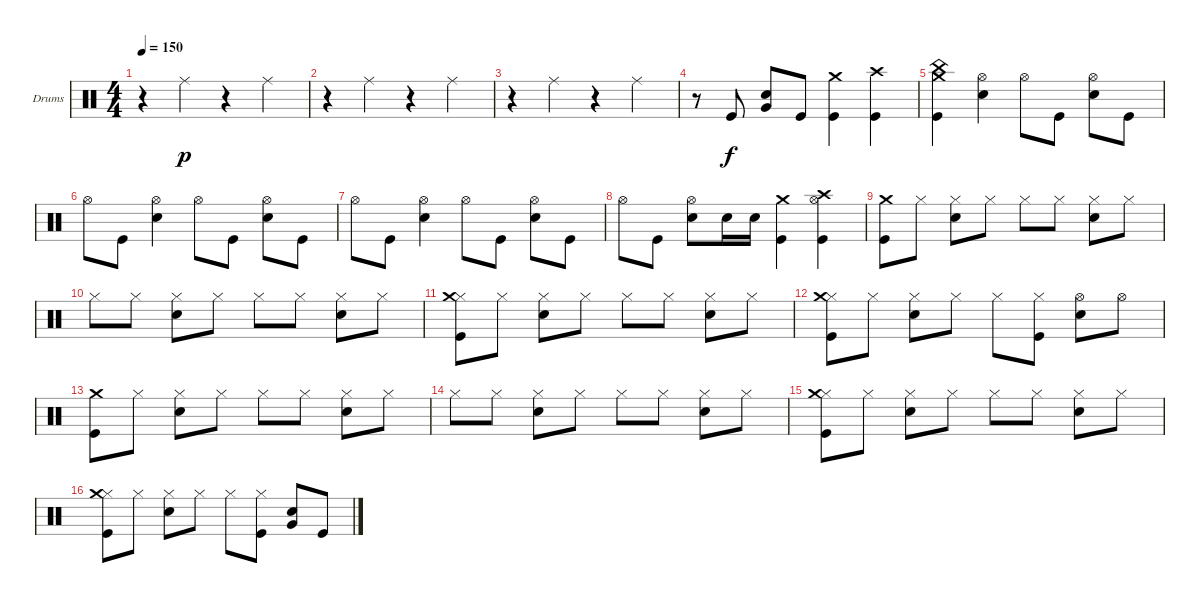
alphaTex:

\defaultSystemsLayout 4
\bracketExtendMode groupsimilarinstruments
\firstSystemTrackNameOrientation horizontal
\otherSystemsTrackNameOrientation horizontal
\track ("Drumkit" "Drums") {instrument percussion}
\staff {score}
\articulation defaults
\ts (4 4)
\tempo 150
\clef neutral
\ks c
r.4{dy p} "Ride (middle)".4 r.4 "Ride (middle)".4 |
r.4 "Ride (middle)".4 r.4 "Ride (middle)".4 |
r.4 "Ride (middle)".4 r.4 "Ride (middle)".4 |
r.8 "Kick (hit)".8{dy f} ("Snare (hit) 2" "Very Low Tom (hit)").8 "Kick (hit)".8 ("Kick (hit)" "Crash medium (hit)").4 ("Kick (hit)" "Crash high (hit)").4 |
("Crash medium (hit)" "Kick (hit)" "China (hit)").4 ("Snare (hit) 2" "Hi-Hat (open)").4 "Hi-Hat (open)".8 "Kick (hit)".8 ("Hi-Hat (open)" "Snare (hit) 2").8 "Kick (hit)".8 |
"Hi-Hat (open)".8 "Kick (hit)".8 ("Hi-Hat (open)" "Snare (hit) 2").4 "Hi-Hat (open)".8 "Kick (hit)".8 ("Hi-Hat (open)" "Snare (hit) 2").8 "Kick (hit)".8 |
"Hi-Hat (open)".8 "Kick (hit)".8 ("Hi-Hat (open)" "Snare (hit) 2").4 "Hi-Hat (open)".8 "Kick (hit)".8 ("Hi-Hat (open)" "Snare (hit) 2").8 "Kick (hit)".8 |
"Hi-Hat (open)".8 "Kick (hit)".8 ("Snare (hit) 2" "Hi-Hat (open)").8 "Snare (hit) 2".16 "Snare (hit) 2".16 ("Kick (hit)" "Crash medium (hit)").4 ("Kick (hit)" "Crash high (hit)" "Hi-Hat (open)").4 |
("Kick (hit)" "Crash medium (hit)").8 "Hi-Hat (closed)".8 ("Hi-Hat (closed)" "Snare (hit) 2").8 "Hi-Hat (closed)".8 "Hi-Hat (closed)".8 "Hi-Hat (closed)".8 ("Hi-Hat (closed)" "Snare (hit) 2").8 "Hi-Hat (closed)".8 |
"Hi-Hat (closed)".8 "Hi-Hat (closed)".8 ("Hi-Hat (closed)" "Snare (hit) 2").8 "Hi-Hat (closed)".8 "Hi-Hat (closed)".8 "Hi-Hat (closed)".8 ("Hi-Hat (closed)" "Snare (hit) 2").8 "Hi-Hat (closed)".8 |
("Hi-Hat (closed)" "Kick (hit)" "Crash medium (hit)").8 "Hi-Hat (closed)".8 ("Hi-Hat (closed)" "Snare (hit) 2").8 "Hi-Hat (closed)".8 "Hi-Hat (closed)".8 "Hi-Hat (closed)".8 ("Hi-Hat (closed)" "Snare (hit) 2").8 "Hi-Hat (closed)".8 |
("Hi-Hat (closed)" "Kick (hit)" "Crash medium (hit)").8 "Hi-Hat (closed)".8 ("Hi-Hat (closed)" "Snare (hit) 2").8 "Hi-Hat (closed)".8 "Hi-Hat (closed)".8 ("Hi-Hat (closed)" "Kick (hit)").8 ("Hi-Hat (open)" "Snare (hit) 2").8 "Hi-Hat (open)".8 |
("Kick (hit)" "Crash medium (hit)").8 "Hi-Hat (closed)".8 ("Hi-Hat (closed)" "Snare (hit) 2").8 "Hi-Hat (closed)".8 "Hi-Hat (closed)".8 "Hi-Hat (closed)".8 ("Hi-Hat (closed)" "Snare (hit) 2").8 "Hi-Hat (closed)".8 |
"Hi-Hat (closed)".8 "Hi-Hat (closed)".8 ("Hi-Hat (closed)" "Snare (hit) 2").8 "Hi-Hat (closed)".8 "Hi-Hat (closed)".8 "Hi-Hat (closed)".8 ("Hi-Hat (closed)" "Snare (hit) 2").8 "Hi-Hat (closed)".8 |
("Hi-Hat (closed)" "Kick (hit)" "Crash medium (hit)").8 "Hi-Hat (closed)".8 ("Hi-Hat (closed)" "Snare (hit) 2").8 "Hi-Hat (closed)".8 "Hi-Hat (closed)".8 "Hi-Hat (closed)".8 ("Hi-Hat (closed)" "Snare (hit) 2").8 "Hi-Hat (closed)".8 |
("Hi-Hat (closed)" "Kick (hit)" "Crash medium (hit)").8 "Hi-Hat (closed)".8 ("Hi-Hat (closed)" "Snare (hit) 2").8 "Hi-Hat (closed)".8 "Hi-Hat (closed)".8 ("Hi-Hat (closed)" "Kick (hit)").8 ("Snare (hit) 2" "Very Low Tom (hit)").8 "Kick (hit)".8
